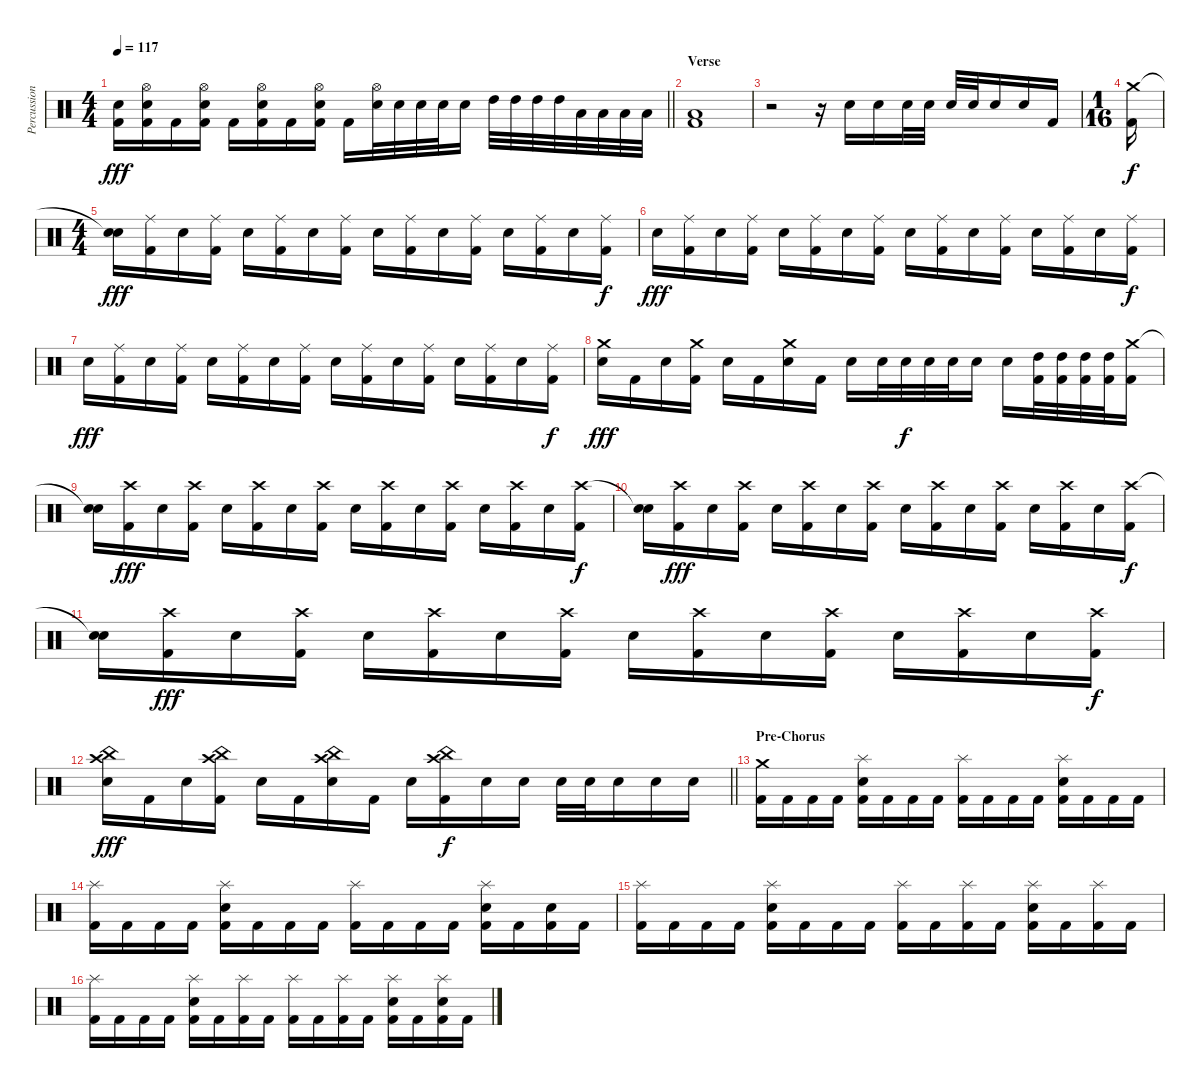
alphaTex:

\track ("Percussioni" "Percussion") {instrument percussion}
\staff {score}
\articulation defaults
\ts (4 4)
\tempo 117
\clef neutral
\barLineRight lightlight
\ks c
("Electric Snare (hit)" "Kick (hit) 2").16{dy fff} ("Hi-Hat (open)" "Electric Snare (hit)" "Kick (hit) 2").16 "Kick (hit) 2".16 ("Hi-Hat (open)" "Electric Snare (hit)" "Kick (hit) 2").16 "Kick (hit) 2".16 ("Hi-Hat (open)" "Electric Snare (hit)" "Kick (hit) 2").16 "Kick (hit) 2".16 ("Hi-Hat (open)" "Electric Snare (hit)" "Kick (hit) 2").16 "Kick (hit) 2".16 ("Hi-Hat (open)" "Electric Snare (hit)").32 "Electric Snare (hit)".32 "Electric Snare (hit)".32 "Electric Snare (hit)".32 "Electric Snare (hit)".16 "High Tom (hit)".32 "High Tom (hit)".32 "High Tom (hit)".32 "High Tom (hit)".32 "Low Tom (hit)".32 "Low Tom (hit)".32 "Low Floor Tom (hit)".32 "Low Floor Tom (hit)".32 |
\section ("" "Verse")
("Low Floor Tom (hit)" "Kick (hit) 2").1 |
r.2 r.16 "Electric Snare (hit)".16 "Electric Snare (hit)".16 "Electric Snare (hit)".32 "Electric Snare (hit)".32 "Electric Snare (hit)".32 "Electric Snare (hit)".32 "Electric Snare (hit)".16 "Electric Snare (hit)".16 "Kick (hit) 2".16 |
\ts (1 16)
("Crash medium (hit)" "Kick (hit) 2").16{dy f} |
\ts (4 4)
("Snare (hit)"{t} "Electric Snare (hit)").16{dy fff} ("Ride (middle)" "Kick (hit) 2").16 "Electric Snare (hit)".16 ("Ride (middle)" "Kick (hit) 2").16 "Electric Snare (hit)".16 ("Ride (middle)" "Kick (hit) 2").16 "Electric Snare (hit)".16 ("Ride (middle)" "Kick (hit) 2").16 "Electric Snare (hit)".16 ("Ride (middle)" "Kick (hit) 2").16 "Electric Snare (hit)".16 ("Ride (middle)" "Kick (hit) 2").16 "Electric Snare (hit)".16 ("Ride (middle)" "Kick (hit) 2").16 "Electric Snare (hit)".16 ("Ride (middle)" "Kick (hit) 2").16{dy f} |
"Electric Snare (hit)".16{dy fff} ("Ride (middle)" "Kick (hit) 2").16 "Electric Snare (hit)".16 ("Ride (middle)" "Kick (hit) 2").16 "Electric Snare (hit)".16 ("Ride (middle)" "Kick (hit) 2").16 "Electric Snare (hit)".16 ("Ride (middle)" "Kick (hit) 2").16 "Electric Snare (hit)".16 ("Ride (middle)" "Kick (hit) 2").16 "Electric Snare (hit)".16 ("Ride (middle)" "Kick (hit) 2").16 "Electric Snare (hit)".16 ("Ride (middle)" "Kick (hit) 2").16 "Electric Snare (hit)".16 ("Ride (middle)" "Kick (hit) 2").16{dy f} |
"Electric Snare (hit)".16{dy fff} ("Ride (middle)" "Kick (hit) 2").16 "Electric Snare (hit)".16 ("Ride (middle)" "Kick (hit) 2").16 "Electric Snare (hit)".16 ("Ride (middle)" "Kick (hit) 2").16 "Electric Snare (hit)".16 ("Ride (middle)" "Kick (hit) 2").16 "Electric Snare (hit)".16 ("Ride (middle)" "Kick (hit) 2").16 "Electric Snare (hit)".16 ("Ride (middle)" "Kick (hit) 2").16 "Electric Snare (hit)".16 ("Ride (middle)" "Kick (hit) 2").16 "Electric Snare (hit)".16 ("Ride (middle)" "Kick (hit) 2").16{dy f} |
("Crash medium (hit)" "Electric Snare (hit)").16{dy fff} "Kick (hit) 2".16 "Electric Snare (hit)".16 ("Crash medium (hit)" "Kick (hit) 2").16 "Electric Snare (hit)".16 "Kick (hit) 2".16 ("Crash medium (hit)" "Electric Snare (hit)").16 "Kick (hit) 2".16 "Electric Snare (hit)".16 "Electric Snare (hit)".32 "Electric Snare (hit)".32{dy f} "Electric Snare (hit)".32 "Electric Snare (hit)".32 "Electric Snare (hit)".16 "Electric Snare (hit)".16 ("High Tom (hit)" "Kick (hit) 2").32 ("High Tom (hit)" "Kick (hit) 2").32 ("High Tom (hit)" "Kick (hit) 2").32 ("High Tom (hit)" "Kick (hit) 2").32 ("Crash medium (hit)" "Kick (hit) 2").16 |
("Snare (hit)"{t} "Electric Snare (hit)").16 ("Crash high (hit)" "Kick (hit) 2").16{dy fff} "Electric Snare (hit)".16 ("Crash high (hit)" "Kick (hit) 2").16 "Electric Snare (hit)".16 ("Crash high (hit)" "Kick (hit) 2").16 "Electric Snare (hit)".16 ("Crash high (hit)" "Kick (hit) 2").16 "Electric Snare (hit)".16 ("Crash high (hit)" "Kick (hit) 2").16 "Electric Snare (hit)".16 ("Crash high (hit)" "Kick (hit) 2").16 "Electric Snare (hit)".16 ("Crash high (hit)" "Kick (hit) 2").16 "Electric Snare (hit)".16 ("Crash high (hit)" "Kick (hit) 2").16{dy f} |
("Snare (hit)"{t} "Electric Snare (hit)").16 ("Crash high (hit)" "Kick (hit) 2").16{dy fff} "Electric Snare (hit)".16 ("Crash high (hit)" "Kick (hit) 2").16 "Electric Snare (hit)".16 ("Crash high (hit)" "Kick (hit) 2").16 "Electric Snare (hit)".16 ("Crash high (hit)" "Kick (hit) 2").16 "Electric Snare (hit)".16 ("Crash high (hit)" "Kick (hit) 2").16 "Electric Snare (hit)".16 ("Crash high (hit)" "Kick (hit) 2").16 "Electric Snare (hit)".16 ("Crash high (hit)" "Kick (hit) 2").16 "Electric Snare (hit)".16 ("Crash high (hit)" "Kick (hit) 2").16{dy f} |
("Snare (hit)"{t} "Electric Snare (hit)").16 ("Crash high (hit)" "Kick (hit) 2").16{dy fff} "Electric Snare (hit)".16 ("Crash high (hit)" "Kick (hit) 2").16 "Electric Snare (hit)".16 ("Crash high (hit)" "Kick (hit) 2").16 "Electric Snare (hit)".16 ("Crash high (hit)" "Kick (hit) 2").16 "Electric Snare (hit)".16 ("Crash high (hit)" "Kick (hit) 2").16 "Electric Snare (hit)".16 ("Crash high (hit)" "Kick (hit) 2").16 "Electric Snare (hit)".16 ("Crash high (hit)" "Kick (hit) 2").16 "Electric Snare (hit)".16 ("Crash high (hit)" "Kick (hit) 2").16{dy f} |
\barLineRight lightlight
("Crash high (hit)" "China (hit)" "Electric Snare (hit)").16{dy fff} "Kick (hit) 2".16 "Electric Snare (hit)".16 ("Crash high (hit)" "China (hit)" "Kick (hit) 2").16 "Electric Snare (hit)".16 "Kick (hit) 2".16 ("Crash high (hit)" "China (hit)" "Electric Snare (hit)").16 "Kick (hit) 2".16 "Electric Snare (hit)".16 ("Crash high (hit)" "China (hit)" "Kick (hit) 2").16{dy f} "Electric Snare (hit)".16 "Electric Snare (hit)".16 "Electric Snare (hit)".32 "Electric Snare (hit)".32 "Electric Snare (hit)".16 "Electric Snare (hit)".16 "Electric Snare (hit)".16 |
\section ("" "Pre-Chorus")
("Crash medium (hit)" "Kick (hit) 2").16 "Kick (hit) 2".16 "Kick (hit) 2".16 "Kick (hit) 2".16 ("Splash (hit)" "Electric Snare (hit)" "Kick (hit) 2").16 "Kick (hit) 2".16 "Kick (hit) 2".16 "Kick (hit) 2".16 ("Splash (hit)" "Kick (hit) 2").16 "Kick (hit) 2".16 "Kick (hit) 2".16 "Kick (hit) 2".16 ("Splash (hit)" "Electric Snare (hit)" "Kick (hit) 2").16 "Kick (hit) 2".16 "Kick (hit) 2".16 "Kick (hit) 2".16 |
("Splash (hit)" "Kick (hit) 2").16 "Kick (hit) 2".16 "Kick (hit) 2".16 "Kick (hit) 2".16 ("Splash (hit)" "Electric Snare (hit)" "Kick (hit) 2").16 "Kick (hit) 2".16 "Kick (hit) 2".16 "Kick (hit) 2".16 ("Splash (hit)" "Kick (hit) 2").16 "Kick (hit) 2".16 "Kick (hit) 2".16 "Kick (hit) 2".16 ("Splash (hit)" "Electric Snare (hit)" "Kick (hit) 2").16 "Kick (hit) 2".16 ("Electric Snare (hit)" "Kick (hit) 2").16 "Kick (hit) 2".16 |
("Splash (hit)" "Kick (hit) 2").16 "Kick (hit) 2".16 "Kick (hit) 2".16 "Kick (hit) 2".16 ("Splash (hit)" "Electric Snare (hit)" "Kick (hit) 2").16 "Kick (hit) 2".16 "Kick (hit) 2".16 "Kick (hit) 2".16 ("Splash (hit)" "Kick (hit) 2").16 "Kick (hit) 2".16 ("Splash (hit)" "Kick (hit) 2").16 "Kick (hit) 2".16 ("Splash (hit)" "Electric Snare (hit)" "Kick (hit) 2").16 "Kick (hit) 2".16 ("Splash (hit)" "Kick (hit) 2").16 "Kick (hit) 2".16 |
("Splash (hit)" "Kick (hit) 2").16 "Kick (hit) 2".16 "Kick (hit) 2".16 "Kick (hit) 2".16 ("Splash (hit)" "Electric Snare (hit)" "Kick (hit) 2").16 "Kick (hit) 2".16 ("Splash (hit)" "Kick (hit) 2").16 "Kick (hit) 2".16 ("Splash (hit)" "Kick (hit) 2").16 "Kick (hit) 2".16 ("Splash (hit)" "Kick (hit) 2").16 "Kick (hit) 2".16 ("Splash (hit)" "Electric Snare (hit)" "Kick (hit) 2").16 "Kick (hit) 2".16 ("Splash (hit)" "Electric Snare (hit)" "Kick (hit) 2").16 "Kick (hit) 2".16
